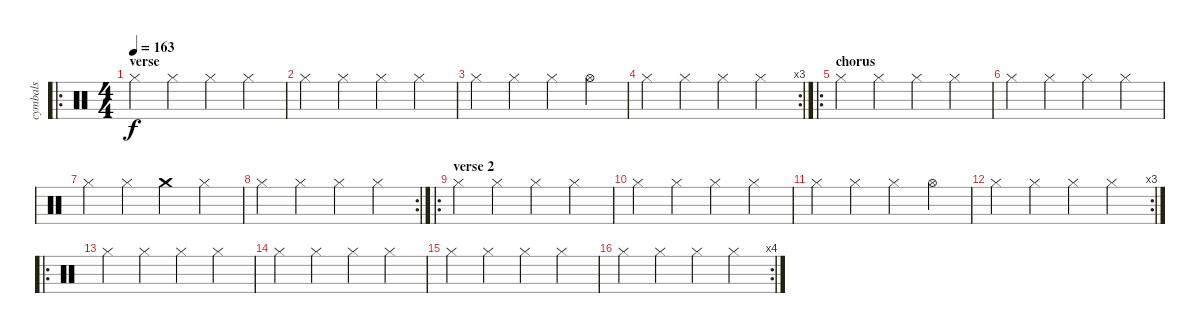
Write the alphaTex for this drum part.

\track ("cymbals" "cymbals") {instrument percussion}
\staff {score}
\articulation defaults
\ro
\ts (4 4)
\section ("" "verse ")
\tempo 163
\clef neutral
\ks c "Hi-Hat (closed)".4{dy f} "Hi-Hat (closed)".4 "Hi-Hat (closed)".4 "Hi-Hat (closed)".4
|
"Hi-Hat (closed)".4 "Hi-Hat (closed)".4 "Hi-Hat (closed)".4 "Hi-Hat (closed)".4 |
"Hi-Hat (closed)".4 "Hi-Hat (closed)".4 "Hi-Hat (closed)".4 "Hi-Hat (open)".4 |
\rc 3 "Hi-Hat (closed)".4 "Hi-Hat (closed)".4 "Hi-Hat (closed)".4 "Hi-Hat (closed)".4
|
\ro
\section ("" "chorus ")
"Hi-Hat (closed)".4 "Hi-Hat (closed)".4 "Hi-Hat (closed)".4 "Hi-Hat (closed)".4 |
"Hi-Hat (closed)".4 "Hi-Hat (closed)".4 "Hi-Hat (closed)".4 "Hi-Hat (closed)".4 |
"Hi-Hat (closed)".4 "Hi-Hat (closed)".4 "Crash medium (hit)".4 "Hi-Hat (closed)".4 |
\rc 2 "Hi-Hat (closed)".4 "Hi-Hat (closed)".4 "Hi-Hat (closed)".4 "Hi-Hat (closed)".4
|
\ro
\section ("" "verse 2")
"Hi-Hat (closed)".4 "Hi-Hat (closed)".4 "Hi-Hat (closed)".4 "Hi-Hat (closed)".4 |
"Hi-Hat (closed)".4 "Hi-Hat (closed)".4 "Hi-Hat (closed)".4 "Hi-Hat (closed)".4 |
"Hi-Hat (closed)".4 "Hi-Hat (closed)".4 "Hi-Hat (closed)".4 "Hi-Hat (open)".4 |
\rc 3 "Hi-Hat (closed)".4 "Hi-Hat (closed)".4 "Hi-Hat (closed)".4 "Hi-Hat (closed)".4
|
\ro "Hi-Hat (closed)".4 "Hi-Hat (closed)".4 "Hi-Hat (closed)".4 "Hi-Hat (closed)".4
|
"Hi-Hat (closed)".4 "Hi-Hat (closed)".4 "Hi-Hat (closed)".4 "Hi-Hat (closed)".4 |
"Hi-Hat (closed)".4 "Hi-Hat (closed)".4 "Hi-Hat (closed)".4 "Hi-Hat (closed)".4 |
\rc 4 "Hi-Hat (closed)".4 "Hi-Hat (closed)".4 "Hi-Hat (closed)".4 "Hi-Hat (closed)".4
